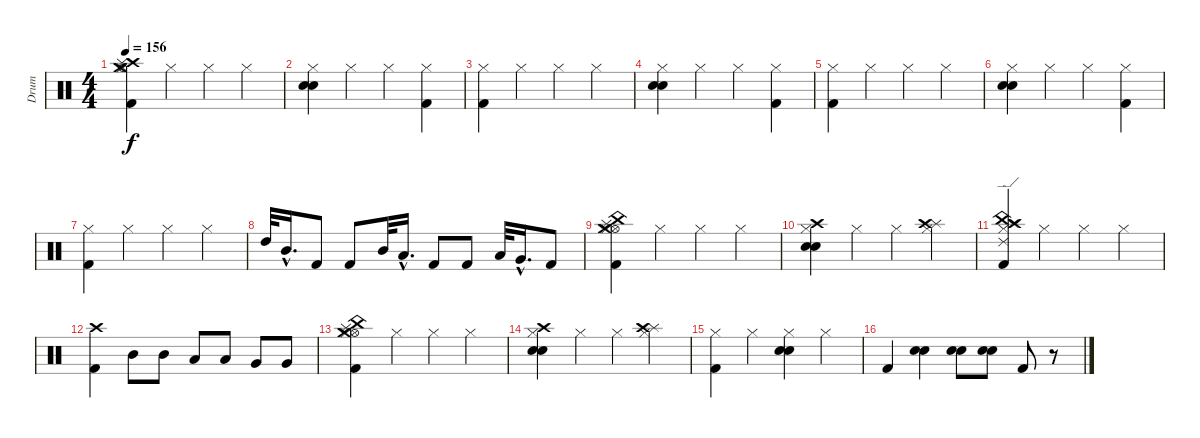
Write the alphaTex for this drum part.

\track (" Drum" " Drum") {instrument percussion}
\staff {score}
\articulation defaults
\ts (4 4)
\tempo 156
\clef neutral
\ks c
("Kick (hit) 2" "Hi-Hat (closed)" "Crash high (hit)" "Hi-Hat (open)" "Crash medium (hit)" "Splash (hit)").4{dy f} "Hi-Hat (closed)".4 "Hi-Hat (closed)".4 "Hi-Hat (closed)".4 |
("Electric Snare (hit)" "Snare (hit) 2" "Hi-Hat (closed)").4 "Hi-Hat (closed)".4 "Hi-Hat (closed)".4 ("Kick (hit) 2" "Hi-Hat (closed)").4 |
("Kick (hit) 2" "Hi-Hat (closed)").4 "Hi-Hat (closed)".4 "Hi-Hat (closed)".4 "Hi-Hat (closed)".4 |
("Electric Snare (hit)" "Snare (hit) 2" "Hi-Hat (closed)").4 "Hi-Hat (closed)".4 "Hi-Hat (closed)".4 ("Kick (hit) 2" "Hi-Hat (closed)").4 |
("Kick (hit) 2" "Hi-Hat (closed)").4 "Hi-Hat (closed)".4 "Hi-Hat (closed)".4 "Hi-Hat (closed)".4 |
("Electric Snare (hit)" "Snare (hit) 2" "Hi-Hat (closed)").4 "Hi-Hat (closed)".4 "Hi-Hat (closed)".4 ("Kick (hit) 2" "Hi-Hat (closed)").4 |
("Kick (hit) 2" "Hi-Hat (closed)").4 "Hi-Hat (closed)".4 "Hi-Hat (closed)".4 "Hi-Hat (closed)".4 |
"High Tom (hit)".32 "Mid Tom (hit)"{hac}.16{d} "Kick (hit) 2".8 "Kick (hit) 2".8 "Mid Tom (hit)".32 "Low Tom (hit)"{hac}.16{d} "Kick (hit) 2".8 "Kick (hit) 2".8 "Low Tom (hit)".32 "Very Low Tom (hit)"{hac}.16{d} "Kick (hit) 2".8 |
("Hi-Hat (open)" "Crash medium (hit)" "Splash (hit)" "China (hit)" "Kick (hit) 2" "Hi-Hat (closed)").4 "Hi-Hat (closed)".4 "Hi-Hat (closed)".4 "Hi-Hat (closed)".4 |
("Crash high (hit)" "Electric Snare (hit)" "Snare (hit) 2" "Hi-Hat (closed)").4 "Hi-Hat (closed)".4 "Hi-Hat (closed)".4 ("Splash (hit)" "Crash high (hit)" "Hi-Hat (closed)").4 |
("Crash high (hit)" "China (hit)" "Ride (edge) 2" "Splash (hit)" "Kick (hit) 2" "Hi-Hat (closed)").4 "Hi-Hat (closed)".4 "Hi-Hat (closed)".4 "Hi-Hat (closed)".4 |
("Crash high (hit)" "Kick (hit) 2").4 "Mid Tom (hit)".8 "Mid Tom (hit)".8 "Low Tom (hit)".8 "Low Tom (hit)".8 "Very Low Tom (hit)".8 "Very Low Tom (hit)".8 |
("Hi-Hat (open)" "Crash medium (hit)" "Splash (hit)" "China (hit)" "Kick (hit) 2" "Hi-Hat (closed)").4 "Hi-Hat (closed)".4 "Hi-Hat (closed)".4 "Hi-Hat (closed)".4 |
("Crash high (hit)" "Electric Snare (hit)" "Snare (hit) 2" "Hi-Hat (closed)").4 "Hi-Hat (closed)".4 "Hi-Hat (closed)".4 ("Splash (hit)" "Crash high (hit)" "Hi-Hat (closed)").4 |
("Hi-Hat (closed)" "Kick (hit) 2").4 "Hi-Hat (closed)".4 ("Electric Snare (hit)" "Snare (hit) 2" "Hi-Hat (closed)").4 "Hi-Hat (closed)".4 |
"Kick (hit) 2".4 ("Electric Snare (hit)" "Snare (hit) 2").4 ("Electric Snare (hit)" "Snare (hit) 2").8 ("Snare (hit) 2" "Electric Snare (hit)").8 "Kick (hit) 2".8 r.8
